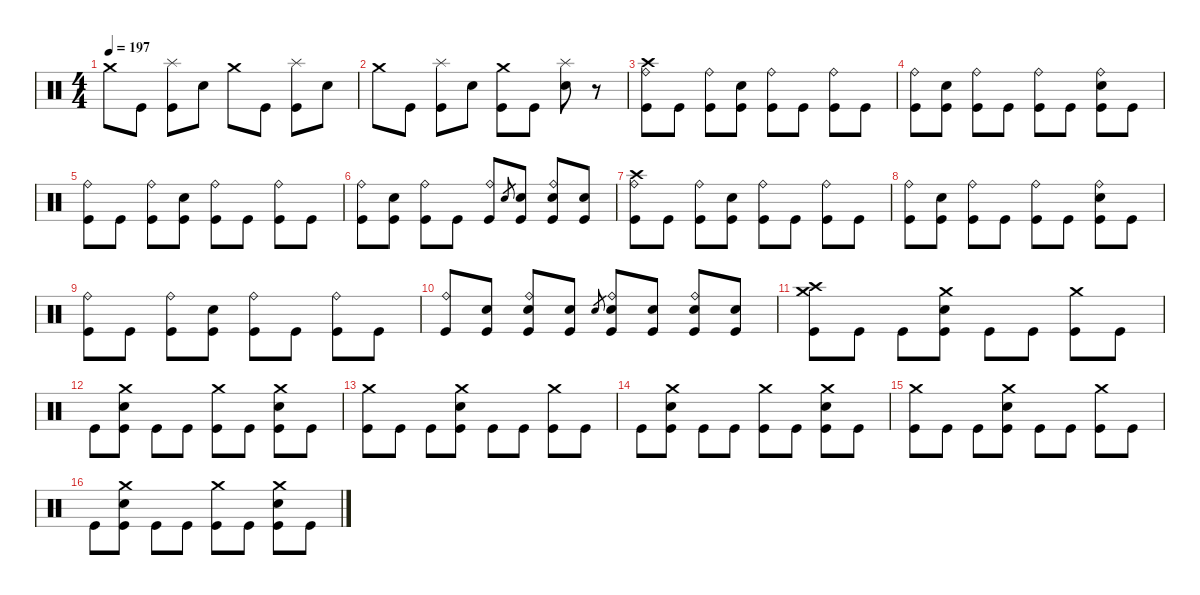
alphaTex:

\defaultSystemsLayout 4
\hideDynamics
\bracketExtendMode nobrackets
\singleTrackTrackNamePolicy hidden
\multiTrackTrackNamePolicy hidden
\firstSystemTrackNameMode fullname
\firstSystemTrackNameOrientation horizontal
\otherSystemsTrackNameOrientation horizontal
\track ("Drums" "drm.") {defaultSystemsLayout 4 instrument percussion}
\staff {score}
\articulation defaults
\ts (4 4)
\tempo 197
\clef neutral
\ks c "Crash medium (hit)".8{dy mf beam Down} "Kick (hit)".8{dy f beam Down}
("Splash (hit)" "Kick (hit)").8{dy mf beam Down} "Snare (hit) 2".8{dy f beam Down} "Crash medium (hit)".8{dy mf beam Down} "Kick (hit)".8{dy f beam Down} ("Splash (hit)" "Kick (hit)").8{dy mf beam Down} "Snare (hit) 2".8{dy f beam Down} |
"Crash medium (hit)".8{dy mf beam Down} "Kick (hit)".8{dy f beam Down} ("Splash (hit)" "Kick (hit)").8{dy mf beam Down} "Snare (hit) 2".8{dy f beam Down} ("Crash medium (hit)" "Kick (hit)").8{dy mf beam Down} "Kick (hit)".8{dy f beam Down} ("Splash (hit)" "Snare (hit) 2").8{dy mf beam Down} r.8{beam Down} |
("Crash high (hit)" "Ride (bell)" "Kick (hit)").8{dy f beam Down} "Kick (hit)".8{beam Down} ("Ride (bell)" "Kick (hit)").8{beam Down} ("Snare (hit) 2" "Kick (hit)").8{beam Down} ("Ride (bell)" "Kick (hit)").8{beam Down} "Kick (hit)".8{beam Down} ("Ride (bell)" "Kick (hit)").8{beam Down} "Kick (hit)".8{beam Down} |
("Ride (bell)" "Kick (hit)").8{beam Down} ("Snare (hit) 2" "Kick (hit)").8{beam Down} ("Ride (bell)" "Kick (hit)").8{beam Down} "Kick (hit)".8{beam Down} ("Ride (bell)" "Kick (hit)").8{beam Down} "Kick (hit)".8{beam Down} ("Ride (bell)" "Snare (hit) 2" "Kick (hit)").8{beam Down} "Kick (hit)".8{beam Down} |
("Ride (bell)" "Kick (hit)").8{beam Down} "Kick (hit)".8{beam Down} ("Ride (bell)" "Kick (hit)").8{beam Down} ("Snare (hit) 2" "Kick (hit)").8{beam Down} ("Ride (bell)" "Kick (hit)").8{beam Down} "Kick (hit)".8{beam Down} ("Ride (bell)" "Kick (hit)").8{beam Down} "Kick (hit)".8{beam Down} |
("Ride (bell)" "Kick (hit)").8{beam Down} ("Snare (hit) 2" "Kick (hit)").8{beam Down} ("Ride (bell)" "Kick (hit)").8{beam Down} "Kick (hit)".8{beam Down} ("Ride (bell)" "Kick (hit)").8{beam Up} "Electric Snare (hit)".8{gr dy mf beam Up} ("Snare (hit) 2" "Kick (hit)").8{dy f beam Up} ("Ride (bell)" "Snare (hit) 2" "Kick (hit)").8{beam Up} ("Snare (hit) 2" "Kick (hit)").8{beam Up} |
("Crash high (hit)" "Ride (bell)" "Kick (hit)").8{beam Down} "Kick (hit)".8{beam Down} ("Ride (bell)" "Kick (hit)").8{beam Down} ("Snare (hit) 2" "Kick (hit)").8{beam Down} ("Ride (bell)" "Kick (hit)").8{beam Down} "Kick (hit)".8{beam Down} ("Ride (bell)" "Kick (hit)").8{beam Down} "Kick (hit)".8{beam Down} |
("Ride (bell)" "Kick (hit)").8{beam Down} ("Snare (hit) 2" "Kick (hit)").8{beam Down} ("Ride (bell)" "Kick (hit)").8{beam Down} "Kick (hit)".8{beam Down} ("Ride (bell)" "Kick (hit)").8{beam Down} "Kick (hit)".8{beam Down} ("Ride (bell)" "Snare (hit) 2" "Kick (hit)").8{beam Down} "Kick (hit)".8{beam Down} |
("Ride (bell)" "Kick (hit)").8{beam Down} "Kick (hit)".8{beam Down} ("Ride (bell)" "Kick (hit)").8{beam Down} ("Snare (hit) 2" "Kick (hit)").8{beam Down} ("Ride (bell)" "Kick (hit)").8{beam Down} "Kick (hit)".8{beam Down} ("Ride (bell)" "Kick (hit)").8{beam Down} "Kick (hit)".8{beam Down} |
("Ride (bell)" "Kick (hit)").8{beam Up} ("Snare (hit) 2" "Kick (hit)").8{beam Up} ("Ride (bell)" "Snare (hit) 2" "Kick (hit)").8{beam Up} ("Snare (hit) 2" "Kick (hit)").8{beam Up} "Electric Snare (hit)".8{gr dy mf beam Up} ("Ride (bell)" "Snare (hit) 2" "Kick (hit)").8{dy f beam Up} ("Snare (hit) 2" "Kick (hit)").8{beam Up} ("Ride (bell)" "Snare (hit) 2" "Kick (hit)").8{beam Up} ("Snare (hit) 2" "Kick (hit)").8{beam Up} |
("Crash high (hit)" "Crash medium (hit)" "Kick (hit)").8{beam Down} "Kick (hit)".8{beam Down} "Kick (hit)".8{beam Down} ("Crash medium (hit)" "Snare (hit) 2" "Kick (hit)").8{beam Down} "Kick (hit)".8{beam Down} "Kick (hit)".8{beam Down} ("Crash medium (hit)" "Kick (hit)").8{beam Down} "Kick (hit)".8{beam Down} |
"Kick (hit)".8{beam Down} ("Crash medium (hit)" "Snare (hit) 2" "Kick (hit)").8{beam Down} "Kick (hit)".8{beam Down} "Kick (hit)".8{beam Down} ("Crash medium (hit)" "Kick (hit)").8{beam Down} "Kick (hit)".8{beam Down} ("Crash medium (hit)" "Snare (hit) 2" "Kick (hit)").8{beam Down} "Kick (hit)".8{beam Down} |
("Crash medium (hit)" "Kick (hit)").8{beam Down} "Kick (hit)".8{beam Down} "Kick (hit)".8{beam Down} ("Crash medium (hit)" "Snare (hit) 2" "Kick (hit)").8{beam Down} "Kick (hit)".8{beam Down} "Kick (hit)".8{beam Down} ("Crash medium (hit)" "Kick (hit)").8{beam Down} "Kick (hit)".8{beam Down} |
"Kick (hit)".8{beam Down} ("Crash medium (hit)" "Snare (hit) 2" "Kick (hit)").8{beam Down} "Kick (hit)".8{beam Down} "Kick (hit)".8{beam Down} ("Crash medium (hit)" "Kick (hit)").8{beam Down} "Kick (hit)".8{beam Down} ("Crash medium (hit)" "Snare (hit) 2" "Kick (hit)").8{beam Down} "Kick (hit)".8{beam Down} |
("Crash medium (hit)" "Kick (hit)").8{beam Down} "Kick (hit)".8{beam Down} "Kick (hit)".8{beam Down} ("Crash medium (hit)" "Snare (hit) 2" "Kick (hit)").8{beam Down} "Kick (hit)".8{beam Down} "Kick (hit)".8{beam Down} ("Crash medium (hit)" "Kick (hit)").8{beam Down} "Kick (hit)".8{beam Down} |
"Kick (hit)".8{beam Down} ("Crash medium (hit)" "Snare (hit) 2" "Kick (hit)").8{beam Down} "Kick (hit)".8{beam Down} "Kick (hit)".8{beam Down} ("Crash medium (hit)" "Kick (hit)").8{beam Down} "Kick (hit)".8{beam Down} ("Crash medium (hit)" "Snare (hit) 2" "Kick (hit)").8{beam Down} "Kick (hit)".8{beam Down}
